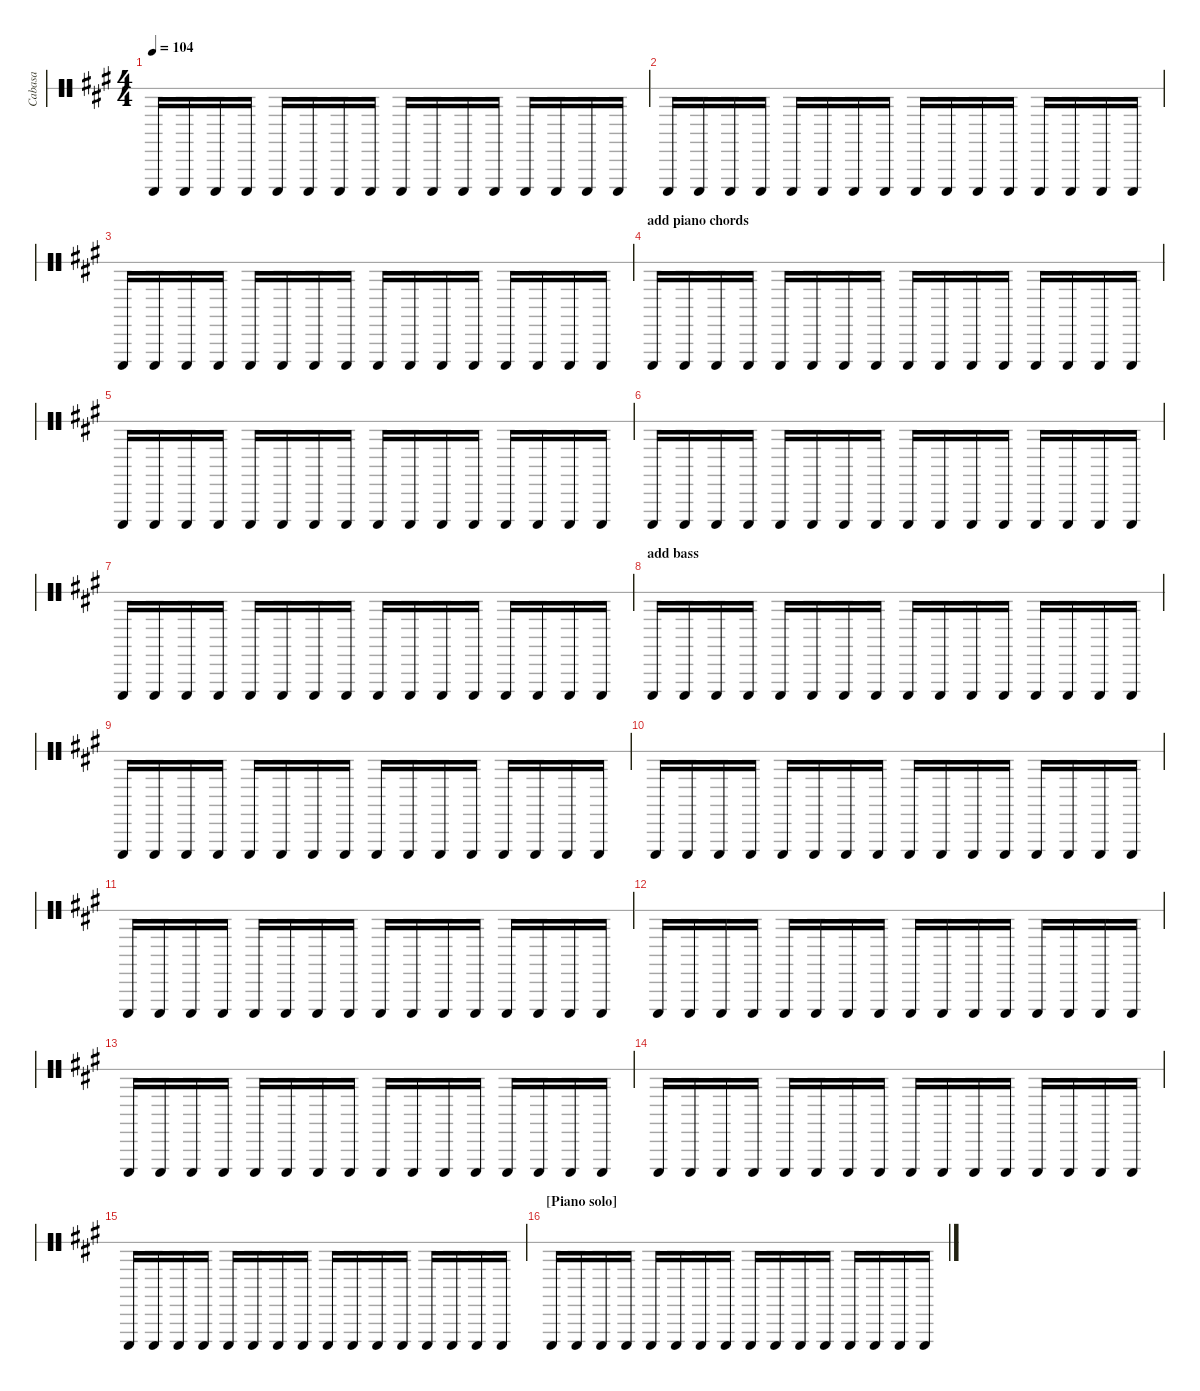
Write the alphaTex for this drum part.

\hideDynamics
\bracketExtendMode nobrackets
\otherSystemsTrackNameOrientation horizontal
\track ("Cabasa" "Cabasa") {instrument percussion}
\staff {score 1}
\articulation defaults
\ts (4 4)
\tempo 104
\clef neutral
\ks a "Cabasa (hit)"{acc forcenatural}.16{dy f beam Up} "Cabasa (hit)"{acc forcenatural}.16{beam Up} "Cabasa (hit)"{acc forcenatural}.16{beam Up} "Cabasa (hit)"{acc forcenatural}.16{beam Up} "Cabasa (hit)"{acc forcenatural}.16{beam Up} "Cabasa (hit)"{acc forcenatural}.16{beam Up} "Cabasa (hit)"{acc forcenatural}.16{beam Up} "Cabasa (hit)"{acc forcenatural}.16{beam Up} "Cabasa (hit)"{acc forcenatural}.16{beam Up} "Cabasa (hit)"{acc forcenatural}.16{beam Up} "Cabasa (hit)"{acc forcenatural}.16{beam Up} "Cabasa (hit)"{acc forcenatural}.16{beam Up} "Cabasa (hit)"{acc forcenatural}.16{beam Up} "Cabasa (hit)"{acc forcenatural}.16{beam Up} "Cabasa (hit)"{acc forcenatural}.16{beam Up} "Cabasa (hit)"{acc forcenatural}.16{beam Up}
|
"Cabasa (hit)"{acc forcenatural}.16{beam Up} "Cabasa (hit)"{acc forcenatural}.16{beam Up} "Cabasa (hit)"{acc forcenatural}.16{beam Up} "Cabasa (hit)"{acc forcenatural}.16{beam Up} "Cabasa (hit)"{acc forcenatural}.16{beam Up} "Cabasa (hit)"{acc forcenatural}.16{beam Up} "Cabasa (hit)"{acc forcenatural}.16{beam Up} "Cabasa (hit)"{acc forcenatural}.16{beam Up} "Cabasa (hit)"{acc forcenatural}.16{beam Up} "Cabasa (hit)"{acc forcenatural}.16{beam Up} "Cabasa (hit)"{acc forcenatural}.16{beam Up} "Cabasa (hit)"{acc forcenatural}.16{beam Up} "Cabasa (hit)"{acc forcenatural}.16{beam Up} "Cabasa (hit)"{acc forcenatural}.16{beam Up} "Cabasa (hit)"{acc forcenatural}.16{beam Up} "Cabasa (hit)"{acc forcenatural}.16{beam Up} |
"Cabasa (hit)"{acc forcenatural}.16{beam Up} "Cabasa (hit)"{acc forcenatural}.16{beam Up} "Cabasa (hit)"{acc forcenatural}.16{beam Up} "Cabasa (hit)"{acc forcenatural}.16{beam Up} "Cabasa (hit)"{acc forcenatural}.16{beam Up} "Cabasa (hit)"{acc forcenatural}.16{beam Up} "Cabasa (hit)"{acc forcenatural}.16{beam Up} "Cabasa (hit)"{acc forcenatural}.16{beam Up} "Cabasa (hit)"{acc forcenatural}.16{beam Up} "Cabasa (hit)"{acc forcenatural}.16{beam Up} "Cabasa (hit)"{acc forcenatural}.16{beam Up} "Cabasa (hit)"{acc forcenatural}.16{beam Up} "Cabasa (hit)"{acc forcenatural}.16{beam Up} "Cabasa (hit)"{acc forcenatural}.16{beam Up} "Cabasa (hit)"{acc forcenatural}.16{beam Up} "Cabasa (hit)"{acc forcenatural}.16{beam Up} |
\section ("" "add piano chords")
"Cabasa (hit)"{acc forcenatural}.16{beam Up} "Cabasa (hit)"{acc forcenatural}.16{beam Up} "Cabasa (hit)"{acc forcenatural}.16{beam Up} "Cabasa (hit)"{acc forcenatural}.16{beam Up} "Cabasa (hit)"{acc forcenatural}.16{beam Up} "Cabasa (hit)"{acc forcenatural}.16{beam Up} "Cabasa (hit)"{acc forcenatural}.16{beam Up} "Cabasa (hit)"{acc forcenatural}.16{beam Up} "Cabasa (hit)"{acc forcenatural}.16{beam Up} "Cabasa (hit)"{acc forcenatural}.16{beam Up} "Cabasa (hit)"{acc forcenatural}.16{beam Up} "Cabasa (hit)"{acc forcenatural}.16{beam Up} "Cabasa (hit)"{acc forcenatural}.16{beam Up} "Cabasa (hit)"{acc forcenatural}.16{beam Up} "Cabasa (hit)"{acc forcenatural}.16{beam Up} "Cabasa (hit)"{acc forcenatural}.16{beam Up} |
"Cabasa (hit)"{acc forcenatural}.16{beam Up} "Cabasa (hit)"{acc forcenatural}.16{beam Up} "Cabasa (hit)"{acc forcenatural}.16{beam Up} "Cabasa (hit)"{acc forcenatural}.16{beam Up} "Cabasa (hit)"{acc forcenatural}.16{beam Up} "Cabasa (hit)"{acc forcenatural}.16{beam Up} "Cabasa (hit)"{acc forcenatural}.16{beam Up} "Cabasa (hit)"{acc forcenatural}.16{beam Up} "Cabasa (hit)"{acc forcenatural}.16{beam Up} "Cabasa (hit)"{acc forcenatural}.16{beam Up} "Cabasa (hit)"{acc forcenatural}.16{beam Up} "Cabasa (hit)"{acc forcenatural}.16{beam Up} "Cabasa (hit)"{acc forcenatural}.16{beam Up} "Cabasa (hit)"{acc forcenatural}.16{beam Up} "Cabasa (hit)"{acc forcenatural}.16{beam Up} "Cabasa (hit)"{acc forcenatural}.16{beam Up} |
"Cabasa (hit)"{acc forcenatural}.16{beam Up} "Cabasa (hit)"{acc forcenatural}.16{beam Up} "Cabasa (hit)"{acc forcenatural}.16{beam Up} "Cabasa (hit)"{acc forcenatural}.16{beam Up} "Cabasa (hit)"{acc forcenatural}.16{beam Up} "Cabasa (hit)"{acc forcenatural}.16{beam Up} "Cabasa (hit)"{acc forcenatural}.16{beam Up} "Cabasa (hit)"{acc forcenatural}.16{beam Up} "Cabasa (hit)"{acc forcenatural}.16{beam Up} "Cabasa (hit)"{acc forcenatural}.16{beam Up} "Cabasa (hit)"{acc forcenatural}.16{beam Up} "Cabasa (hit)"{acc forcenatural}.16{beam Up} "Cabasa (hit)"{acc forcenatural}.16{beam Up} "Cabasa (hit)"{acc forcenatural}.16{beam Up} "Cabasa (hit)"{acc forcenatural}.16{beam Up} "Cabasa (hit)"{acc forcenatural}.16{beam Up} |
"Cabasa (hit)"{acc forcenatural}.16{beam Up} "Cabasa (hit)"{acc forcenatural}.16{beam Up} "Cabasa (hit)"{acc forcenatural}.16{beam Up} "Cabasa (hit)"{acc forcenatural}.16{beam Up} "Cabasa (hit)"{acc forcenatural}.16{beam Up} "Cabasa (hit)"{acc forcenatural}.16{beam Up} "Cabasa (hit)"{acc forcenatural}.16{beam Up} "Cabasa (hit)"{acc forcenatural}.16{beam Up} "Cabasa (hit)"{acc forcenatural}.16{beam Up} "Cabasa (hit)"{acc forcenatural}.16{beam Up} "Cabasa (hit)"{acc forcenatural}.16{beam Up} "Cabasa (hit)"{acc forcenatural}.16{beam Up} "Cabasa (hit)"{acc forcenatural}.16{beam Up} "Cabasa (hit)"{acc forcenatural}.16{beam Up} "Cabasa (hit)"{acc forcenatural}.16{beam Up} "Cabasa (hit)"{acc forcenatural}.16{beam Up} |
\section ("" "add bass")
"Cabasa (hit)"{acc forcenatural}.16{beam Up} "Cabasa (hit)"{acc forcenatural}.16{beam Up} "Cabasa (hit)"{acc forcenatural}.16{beam Up} "Cabasa (hit)"{acc forcenatural}.16{beam Up} "Cabasa (hit)"{acc forcenatural}.16{beam Up} "Cabasa (hit)"{acc forcenatural}.16{beam Up} "Cabasa (hit)"{acc forcenatural}.16{beam Up} "Cabasa (hit)"{acc forcenatural}.16{beam Up} "Cabasa (hit)"{acc forcenatural}.16{beam Up} "Cabasa (hit)"{acc forcenatural}.16{beam Up} "Cabasa (hit)"{acc forcenatural}.16{beam Up} "Cabasa (hit)"{acc forcenatural}.16{beam Up} "Cabasa (hit)"{acc forcenatural}.16{beam Up} "Cabasa (hit)"{acc forcenatural}.16{beam Up} "Cabasa (hit)"{acc forcenatural}.16{beam Up} "Cabasa (hit)"{acc forcenatural}.16{beam Up} |
"Cabasa (hit)"{acc forcenatural}.16{beam Up} "Cabasa (hit)"{acc forcenatural}.16{beam Up} "Cabasa (hit)"{acc forcenatural}.16{beam Up} "Cabasa (hit)"{acc forcenatural}.16{beam Up} "Cabasa (hit)"{acc forcenatural}.16{beam Up} "Cabasa (hit)"{acc forcenatural}.16{beam Up} "Cabasa (hit)"{acc forcenatural}.16{beam Up} "Cabasa (hit)"{acc forcenatural}.16{beam Up} "Cabasa (hit)"{acc forcenatural}.16{beam Up} "Cabasa (hit)"{acc forcenatural}.16{beam Up} "Cabasa (hit)"{acc forcenatural}.16{beam Up} "Cabasa (hit)"{acc forcenatural}.16{beam Up} "Cabasa (hit)"{acc forcenatural}.16{beam Up} "Cabasa (hit)"{acc forcenatural}.16{beam Up} "Cabasa (hit)"{acc forcenatural}.16{beam Up} "Cabasa (hit)"{acc forcenatural}.16{beam Up} |
"Cabasa (hit)"{acc forcenatural}.16{beam Up} "Cabasa (hit)"{acc forcenatural}.16{beam Up} "Cabasa (hit)"{acc forcenatural}.16{beam Up} "Cabasa (hit)"{acc forcenatural}.16{beam Up} "Cabasa (hit)"{acc forcenatural}.16{beam Up} "Cabasa (hit)"{acc forcenatural}.16{beam Up} "Cabasa (hit)"{acc forcenatural}.16{beam Up} "Cabasa (hit)"{acc forcenatural}.16{beam Up} "Cabasa (hit)"{acc forcenatural}.16{beam Up} "Cabasa (hit)"{acc forcenatural}.16{beam Up} "Cabasa (hit)"{acc forcenatural}.16{beam Up} "Cabasa (hit)"{acc forcenatural}.16{beam Up} "Cabasa (hit)"{acc forcenatural}.16{beam Up} "Cabasa (hit)"{acc forcenatural}.16{beam Up} "Cabasa (hit)"{acc forcenatural}.16{beam Up} "Cabasa (hit)"{acc forcenatural}.16{beam Up} |
"Cabasa (hit)"{acc forcenatural}.16{beam Up} "Cabasa (hit)"{acc forcenatural}.16{beam Up} "Cabasa (hit)"{acc forcenatural}.16{beam Up} "Cabasa (hit)"{acc forcenatural}.16{beam Up} "Cabasa (hit)"{acc forcenatural}.16{beam Up} "Cabasa (hit)"{acc forcenatural}.16{beam Up} "Cabasa (hit)"{acc forcenatural}.16{beam Up} "Cabasa (hit)"{acc forcenatural}.16{beam Up} "Cabasa (hit)"{acc forcenatural}.16{beam Up} "Cabasa (hit)"{acc forcenatural}.16{beam Up} "Cabasa (hit)"{acc forcenatural}.16{beam Up} "Cabasa (hit)"{acc forcenatural}.16{beam Up} "Cabasa (hit)"{acc forcenatural}.16{beam Up} "Cabasa (hit)"{acc forcenatural}.16{beam Up} "Cabasa (hit)"{acc forcenatural}.16{beam Up} "Cabasa (hit)"{acc forcenatural}.16{beam Up} |
"Cabasa (hit)"{acc forcenatural}.16{beam Up} "Cabasa (hit)"{acc forcenatural}.16{beam Up} "Cabasa (hit)"{acc forcenatural}.16{beam Up} "Cabasa (hit)"{acc forcenatural}.16{beam Up} "Cabasa (hit)"{acc forcenatural}.16{beam Up} "Cabasa (hit)"{acc forcenatural}.16{beam Up} "Cabasa (hit)"{acc forcenatural}.16{beam Up} "Cabasa (hit)"{acc forcenatural}.16{beam Up} "Cabasa (hit)"{acc forcenatural}.16{beam Up} "Cabasa (hit)"{acc forcenatural}.16{beam Up} "Cabasa (hit)"{acc forcenatural}.16{beam Up} "Cabasa (hit)"{acc forcenatural}.16{beam Up} "Cabasa (hit)"{acc forcenatural}.16{beam Up} "Cabasa (hit)"{acc forcenatural}.16{beam Up} "Cabasa (hit)"{acc forcenatural}.16{beam Up} "Cabasa (hit)"{acc forcenatural}.16{beam Up} |
"Cabasa (hit)"{acc forcenatural}.16{beam Up} "Cabasa (hit)"{acc forcenatural}.16{beam Up} "Cabasa (hit)"{acc forcenatural}.16{beam Up} "Cabasa (hit)"{acc forcenatural}.16{beam Up} "Cabasa (hit)"{acc forcenatural}.16{beam Up} "Cabasa (hit)"{acc forcenatural}.16{beam Up} "Cabasa (hit)"{acc forcenatural}.16{beam Up} "Cabasa (hit)"{acc forcenatural}.16{beam Up} "Cabasa (hit)"{acc forcenatural}.16{beam Up} "Cabasa (hit)"{acc forcenatural}.16{beam Up} "Cabasa (hit)"{acc forcenatural}.16{beam Up} "Cabasa (hit)"{acc forcenatural}.16{beam Up} "Cabasa (hit)"{acc forcenatural}.16{beam Up} "Cabasa (hit)"{acc forcenatural}.16{beam Up} "Cabasa (hit)"{acc forcenatural}.16{beam Up} "Cabasa (hit)"{acc forcenatural}.16{beam Up} |
"Cabasa (hit)"{acc forcenatural}.16{beam Up} "Cabasa (hit)"{acc forcenatural}.16{beam Up} "Cabasa (hit)"{acc forcenatural}.16{beam Up} "Cabasa (hit)"{acc forcenatural}.16{beam Up} "Cabasa (hit)"{acc forcenatural}.16{beam Up} "Cabasa (hit)"{acc forcenatural}.16{beam Up} "Cabasa (hit)"{acc forcenatural}.16{beam Up} "Cabasa (hit)"{acc forcenatural}.16{beam Up} "Cabasa (hit)"{acc forcenatural}.16{beam Up} "Cabasa (hit)"{acc forcenatural}.16{beam Up} "Cabasa (hit)"{acc forcenatural}.16{beam Up} "Cabasa (hit)"{acc forcenatural}.16{beam Up} "Cabasa (hit)"{acc forcenatural}.16{beam Up} "Cabasa (hit)"{acc forcenatural}.16{beam Up} "Cabasa (hit)"{acc forcenatural}.16{beam Up} "Cabasa (hit)"{acc forcenatural}.16{beam Up} |
"Cabasa (hit)"{acc forcenatural}.16{beam Up} "Cabasa (hit)"{acc forcenatural}.16{beam Up} "Cabasa (hit)"{acc forcenatural}.16{beam Up} "Cabasa (hit)"{acc forcenatural}.16{beam Up} "Cabasa (hit)"{acc forcenatural}.16{beam Up} "Cabasa (hit)"{acc forcenatural}.16{beam Up} "Cabasa (hit)"{acc forcenatural}.16{beam Up} "Cabasa (hit)"{acc forcenatural}.16{beam Up} "Cabasa (hit)"{acc forcenatural}.16{beam Up} "Cabasa (hit)"{acc forcenatural}.16{beam Up} "Cabasa (hit)"{acc forcenatural}.16{beam Up} "Cabasa (hit)"{acc forcenatural}.16{beam Up} "Cabasa (hit)"{acc forcenatural}.16{beam Up} "Cabasa (hit)"{acc forcenatural}.16{beam Up} "Cabasa (hit)"{acc forcenatural}.16{beam Up} "Cabasa (hit)"{acc forcenatural}.16{beam Up} |
\section ("" "[Piano solo]")
"Cabasa (hit)"{acc forcenatural}.16{beam Up} "Cabasa (hit)"{acc forcenatural}.16{beam Up} "Cabasa (hit)"{acc forcenatural}.16{beam Up} "Cabasa (hit)"{acc forcenatural}.16{beam Up} "Cabasa (hit)"{acc forcenatural}.16{beam Up} "Cabasa (hit)"{acc forcenatural}.16{beam Up} "Cabasa (hit)"{acc forcenatural}.16{beam Up} "Cabasa (hit)"{acc forcenatural}.16{beam Up} "Cabasa (hit)"{acc forcenatural}.16{beam Up} "Cabasa (hit)"{acc forcenatural}.16{beam Up} "Cabasa (hit)"{acc forcenatural}.16{beam Up} "Cabasa (hit)"{acc forcenatural}.16{beam Up} "Cabasa (hit)"{acc forcenatural}.16{beam Up} "Cabasa (hit)"{acc forcenatural}.16{beam Up} "Cabasa (hit)"{acc forcenatural}.16{beam Up} "Cabasa (hit)"{acc forcenatural}.16{beam Up}
